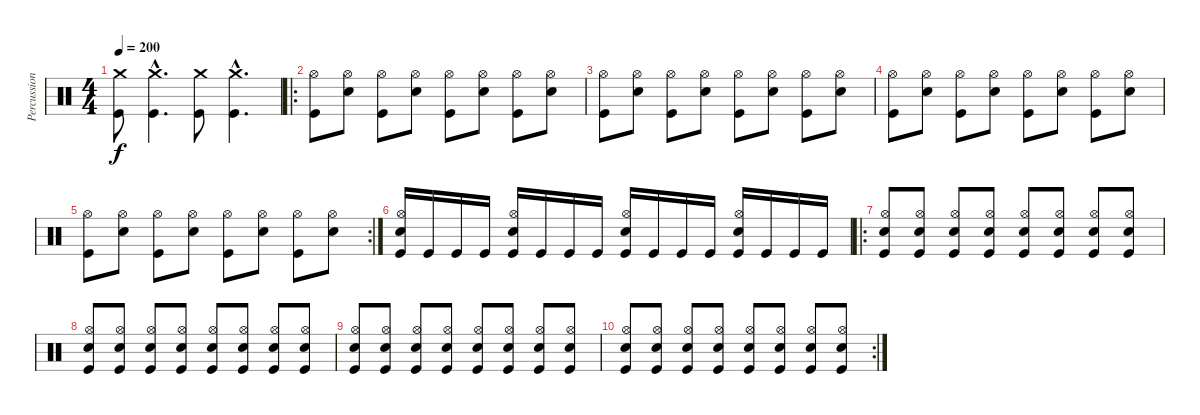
\track ("Percussion" "Percussion") {instrument percussion}
\staff {score}
\articulation defaults
\ts (4 4)
\tempo 200
\clef neutral
\ks c
("Crash medium (hit)" "Kick (hit)").8{dy f} ("Crash medium (hit)"{hac} "Kick (hit)"{hac}).4{d} ("Crash medium (hit)" "Kick (hit)").8 ("Crash medium (hit)"{hac} "Kick (hit)"{hac}).4{d} |
\ro
("Hi-Hat (open)" "Kick (hit)").8 ("Hi-Hat (open)" "Snare (hit) 2").8 ("Hi-Hat (open)" "Kick (hit)").8 ("Hi-Hat (open)" "Snare (hit) 2").8 ("Hi-Hat (open)" "Kick (hit)").8 ("Hi-Hat (open)" "Snare (hit) 2").8 ("Hi-Hat (open)" "Kick (hit)").8 ("Hi-Hat (open)" "Snare (hit) 2").8 |
("Hi-Hat (open)" "Kick (hit)").8 ("Hi-Hat (open)" "Snare (hit) 2").8 ("Hi-Hat (open)" "Kick (hit)").8 ("Hi-Hat (open)" "Snare (hit) 2").8 ("Hi-Hat (open)" "Kick (hit)").8 ("Hi-Hat (open)" "Snare (hit) 2").8 ("Hi-Hat (open)" "Kick (hit)").8 ("Hi-Hat (open)" "Snare (hit) 2").8 |
("Hi-Hat (open)" "Kick (hit)").8 ("Hi-Hat (open)" "Snare (hit) 2").8 ("Hi-Hat (open)" "Kick (hit)").8 ("Hi-Hat (open)" "Snare (hit) 2").8 ("Hi-Hat (open)" "Kick (hit)").8 ("Hi-Hat (open)" "Snare (hit) 2").8 ("Hi-Hat (open)" "Kick (hit)").8 ("Hi-Hat (open)" "Snare (hit) 2").8 |
\rc 2
("Hi-Hat (open)" "Kick (hit)").8 ("Hi-Hat (open)" "Snare (hit) 2").8 ("Hi-Hat (open)" "Kick (hit)").8 ("Hi-Hat (open)" "Snare (hit) 2").8 ("Hi-Hat (open)" "Kick (hit)").8 ("Hi-Hat (open)" "Snare (hit) 2").8 ("Hi-Hat (open)" "Kick (hit)").8 ("Hi-Hat (open)" "Snare (hit) 2").8 |
("Hi-Hat (open)" "Snare (hit) 2" "Kick (hit)").16 "Kick (hit)".16 "Kick (hit)".16 "Kick (hit)".16 ("Hi-Hat (open)" "Snare (hit) 2" "Kick (hit)").16 "Kick (hit)".16 "Kick (hit)".16 "Kick (hit)".16 ("Hi-Hat (open)" "Snare (hit) 2" "Kick (hit)").16 "Kick (hit)".16 "Kick (hit)".16 "Kick (hit)".16 ("Hi-Hat (open)" "Snare (hit) 2" "Kick (hit)").16 "Kick (hit)".16 "Kick (hit)".16 "Kick (hit)".16 |
\ro
("Hi-Hat (open)" "Snare (hit) 2" "Kick (hit)").8 ("Hi-Hat (open)" "Snare (hit) 2" "Kick (hit)").8 ("Hi-Hat (open)" "Snare (hit) 2" "Kick (hit)").8 ("Hi-Hat (open)" "Snare (hit) 2" "Kick (hit)").8 ("Hi-Hat (open)" "Snare (hit) 2" "Kick (hit)").8 ("Hi-Hat (open)" "Snare (hit) 2" "Kick (hit)").8 ("Hi-Hat (open)" "Snare (hit) 2" "Kick (hit)").8 ("Hi-Hat (open)" "Snare (hit) 2" "Kick (hit)").8 |
("Hi-Hat (open)" "Snare (hit) 2" "Kick (hit)").8 ("Hi-Hat (open)" "Snare (hit) 2" "Kick (hit)").8 ("Hi-Hat (open)" "Snare (hit) 2" "Kick (hit)").8 ("Hi-Hat (open)" "Snare (hit) 2" "Kick (hit)").8 ("Hi-Hat (open)" "Snare (hit) 2" "Kick (hit)").8 ("Hi-Hat (open)" "Snare (hit) 2" "Kick (hit)").8 ("Hi-Hat (open)" "Snare (hit) 2" "Kick (hit)").8 ("Hi-Hat (open)" "Snare (hit) 2" "Kick (hit)").8 |
("Hi-Hat (open)" "Snare (hit) 2" "Kick (hit)").8 ("Hi-Hat (open)" "Snare (hit) 2" "Kick (hit)").8 ("Hi-Hat (open)" "Snare (hit) 2" "Kick (hit)").8 ("Hi-Hat (open)" "Snare (hit) 2" "Kick (hit)").8 ("Hi-Hat (open)" "Snare (hit) 2" "Kick (hit)").8 ("Hi-Hat (open)" "Snare (hit) 2" "Kick (hit)").8 ("Hi-Hat (open)" "Snare (hit) 2" "Kick (hit)").8 ("Hi-Hat (open)" "Snare (hit) 2" "Kick (hit)").8 |
\rc 2
("Hi-Hat (open)" "Snare (hit) 2" "Kick (hit)").8 ("Hi-Hat (open)" "Snare (hit) 2" "Kick (hit)").8 ("Hi-Hat (open)" "Snare (hit) 2" "Kick (hit)").8 ("Hi-Hat (open)" "Snare (hit) 2" "Kick (hit)").8 ("Hi-Hat (open)" "Snare (hit) 2" "Kick (hit)").8 ("Hi-Hat (open)" "Snare (hit) 2" "Kick (hit)").8 ("Hi-Hat (open)" "Snare (hit) 2" "Kick (hit)").8 ("Hi-Hat (open)" "Snare (hit) 2" "Kick (hit)").8
